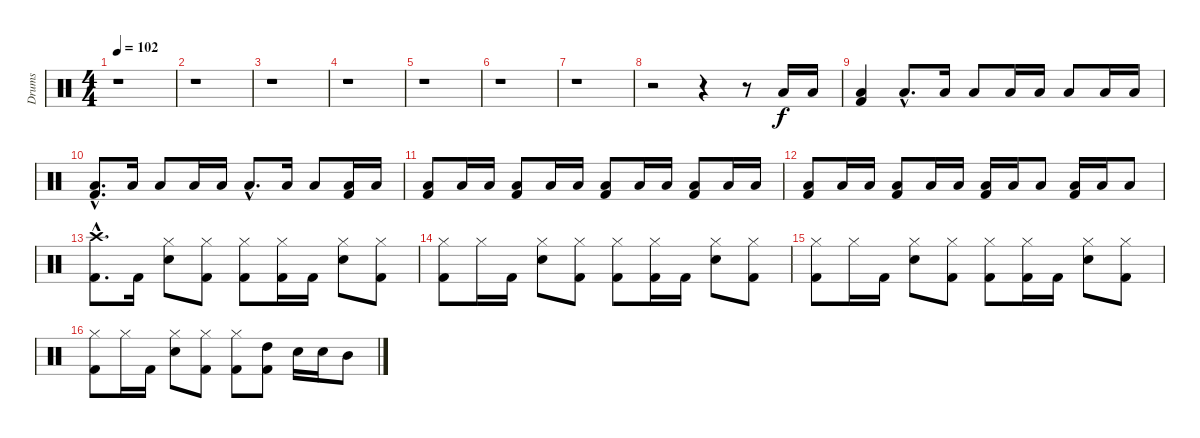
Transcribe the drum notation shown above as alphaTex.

\track ("Drums" "Drums") {instrument percussion}
\staff {score}
\articulation defaults
\ts (4 4)
\tempo 102
\clef neutral
\ks c
r.1{dy f} |
r.1 |
r.1 |
r.1 |
r.1 |
r.1 |
r.1 |
r.2 r.4 r.8 "Low Tom (hit)".16 "Low Tom (hit)".16 |
("Kick (hit) 2" "Low Tom (hit)").4 "Low Tom (hit)"{hac}.8{d} "Low Tom (hit)".16 "Low Tom (hit)".8 "Low Tom (hit)".16 "Low Tom (hit)".16 "Low Tom (hit)".8 "Low Tom (hit)".16 "Low Tom (hit)".16 |
("Kick (hit) 2"{hac} "Low Tom (hit)"{hac}).8{d} "Low Tom (hit)".16 "Low Tom (hit)".8 "Low Tom (hit)".16 "Low Tom (hit)".16 "Low Tom (hit)"{hac}.8{d} "Low Tom (hit)".16 "Low Tom (hit)".8 ("Kick (hit) 2" "Low Tom (hit)").16 "Low Tom (hit)".16 |
("Kick (hit) 2" "Low Tom (hit)").8 "Low Tom (hit)".16 "Low Tom (hit)".16 ("Kick (hit) 2" "Low Tom (hit)").8 "Low Tom (hit)".16 "Low Tom (hit)".16 ("Kick (hit) 2" "Low Tom (hit)").8 "Low Tom (hit)".16 "Low Tom (hit)".16 ("Kick (hit) 2" "Low Tom (hit)").8 "Low Tom (hit)".16 "Low Tom (hit)".16 |
("Kick (hit) 2" "Low Tom (hit)").8 "Low Tom (hit)".16 "Low Tom (hit)".16 ("Kick (hit) 2" "Low Tom (hit)").8 "Low Tom (hit)".16 "Low Tom (hit)".16 ("Kick (hit) 2" "Low Tom (hit)").16 "Low Tom (hit)".16 "Low Tom (hit)".8 ("Kick (hit) 2" "Low Tom (hit)").16 "Low Tom (hit)".16 "Low Tom (hit)".8 |
("Kick (hit) 2"{hac} "Crash high (hit)"{hac}).8{d} "Kick (hit) 2".16 ("Snare (hit) 2" "Hi-Hat (closed)").8 ("Kick (hit) 2" "Hi-Hat (closed)").8 ("Kick (hit) 2" "Hi-Hat (closed)").8 ("Kick (hit) 2" "Hi-Hat (closed)").16 "Kick (hit) 2".16 ("Snare (hit) 2" "Hi-Hat (closed)").8 ("Kick (hit) 2" "Hi-Hat (closed)").8 |
("Kick (hit) 2" "Hi-Hat (closed)").8 "Hi-Hat (closed)".16 "Kick (hit) 2".16 ("Snare (hit) 2" "Hi-Hat (closed)").8 ("Kick (hit) 2" "Hi-Hat (closed)").8 ("Kick (hit) 2" "Hi-Hat (closed)").8 ("Kick (hit) 2" "Hi-Hat (closed)").16 "Kick (hit) 2".16 ("Snare (hit) 2" "Hi-Hat (closed)").8 ("Kick (hit) 2" "Hi-Hat (closed)").8 |
("Kick (hit) 2" "Hi-Hat (closed)").8 "Hi-Hat (closed)".16 "Kick (hit) 2".16 ("Snare (hit) 2" "Hi-Hat (closed)").8 ("Kick (hit) 2" "Hi-Hat (closed)").8 ("Kick (hit) 2" "Hi-Hat (closed)").8 ("Kick (hit) 2" "Hi-Hat (closed)").16 "Kick (hit) 2".16 ("Snare (hit) 2" "Hi-Hat (closed)").8 ("Kick (hit) 2" "Hi-Hat (closed)").8 |
("Kick (hit) 2" "Hi-Hat (closed)").8 "Hi-Hat (closed)".16 "Kick (hit) 2".16 ("Snare (hit) 2" "Hi-Hat (closed)").8 ("Kick (hit) 2" "Hi-Hat (closed)").8 ("Kick (hit) 2" "Hi-Hat (closed)").8 ("Kick (hit) 2" "High Tom (hit)").8 "Snare (hit) 2".16 "Snare (hit) 2".16 "Mid Tom (hit)".8
